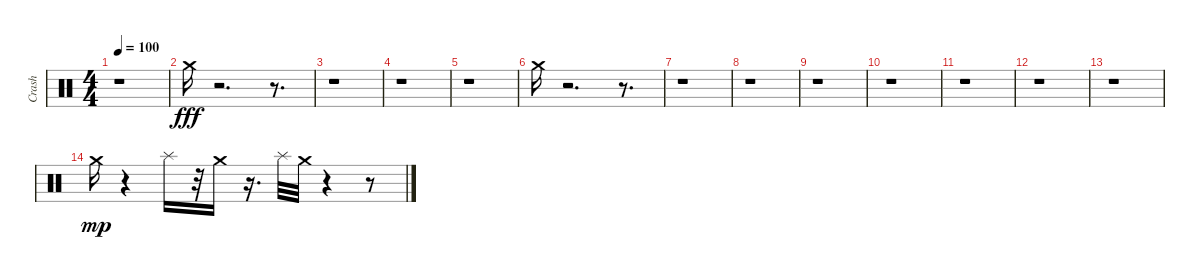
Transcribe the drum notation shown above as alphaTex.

\track ("Crash" "Crash") {instrument percussion}
\staff {score}
\articulation defaults
\ts (4 4)
\tempo 100
\clef neutral
\ks c
r.1{dy fff} |
"Crash medium (hit)".16 r.2{d} r.8{d} |
r.1 |
r.1 |
r.1 |
"Crash medium (hit)".16 r.2{d} r.8{d} |
r.1 |
r.1 |
r.1 |
r.1 |
r.1 |
r.1 |
r.1 |
"Crash medium (hit)".16{dy mp} r.4 "Splash (hit)".16 r.32 "Crash medium (hit)".16 r.16{d} "Splash (hit)".32 "Crash medium (hit)".32 r.4 r.8
